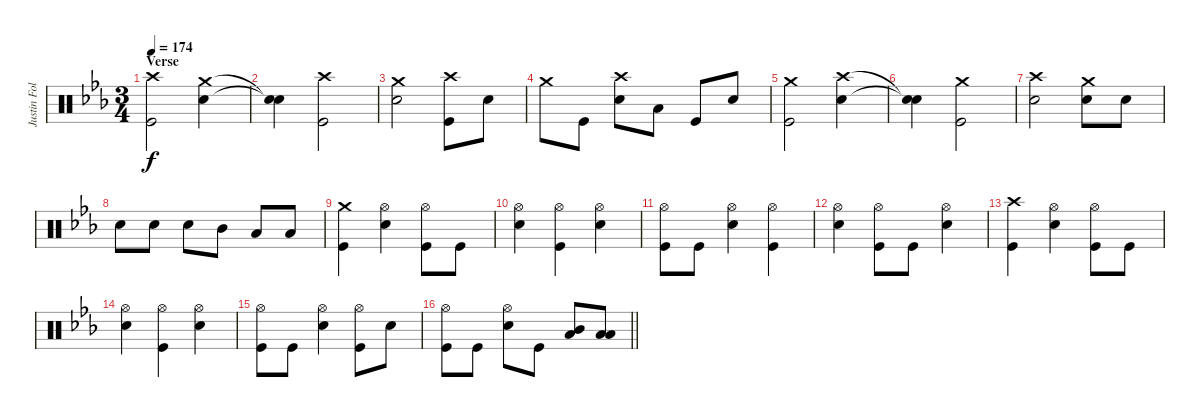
\track ("Justin Foley" "Justin Fol") {instrument percussion}
\staff {score}
\articulation defaults
\ts (3 4)
\section ("" "Verse")
\tempo 174
\clef neutral
\ks cminor
("Kick (hit)" "Crash high (hit)").2{dy f} ("Crash medium (hit)" "Snare (hit) 2").4 |
("Snare (hit)"{t} "Snare (hit)"{t}).4 ("Kick (hit)" "Crash high (hit)").2 |
("Crash medium (hit)" "Snare (hit) 2").2 ("Kick (hit)" "Crash high (hit)").8 "Snare (hit) 2".8 |
"Crash medium (hit)".8 "Kick (hit)".8 ("Snare (hit) 2" "Crash high (hit)").8 "Low Tom (hit)".8 "Kick (hit)".8 "Snare (hit) 2".8 |
("Crash medium (hit)" "Kick (hit)").2 ("Snare (hit) 2" "Crash high (hit)").4 |
("Snare (hit)"{t} "Snare (hit)"{t}).4 ("Crash medium (hit)" "Kick (hit)").2 |
("Snare (hit) 2" "Crash high (hit)").2 ("Crash medium (hit)" "Snare (hit) 2").8 "Snare (hit) 2".8 |
"Snare (hit) 2".8 "Snare (hit) 2".8 "Snare (hit) 2".8 "Mid Tom (hit)".8 "Low Tom (hit)".8 "Low Floor Tom (hit)".8 |
("Crash medium (hit)" "Kick (hit)").4 ("Hi-Hat (open)" "Snare (hit) 2").4 ("Hi-Hat (open)" "Kick (hit)").8 "Kick (hit)".8 |
("Hi-Hat (open)" "Snare (hit) 2").4 ("Hi-Hat (open)" "Kick (hit)").4 ("Hi-Hat (open)" "Snare (hit) 2").4 |
("Hi-Hat (open)" "Kick (hit)").8 "Kick (hit)".8 ("Hi-Hat (open)" "Snare (hit) 2").4 ("Hi-Hat (open)" "Kick (hit)").4 |
("Hi-Hat (open)" "Snare (hit) 2").4 ("Hi-Hat (open)" "Kick (hit)").8 "Kick (hit)".8 ("Hi-Hat (open)" "Snare (hit) 2").4 |
("Crash high (hit)" "Kick (hit)").4 ("Hi-Hat (open)" "Snare (hit) 2").4 ("Hi-Hat (open)" "Kick (hit)").8 "Kick (hit)".8 |
("Hi-Hat (open)" "Snare (hit) 2").4 ("Hi-Hat (open)" "Kick (hit)").4 ("Hi-Hat (open)" "Snare (hit) 2").4 |
("Hi-Hat (open)" "Kick (hit)").8 "Kick (hit)".8 ("Hi-Hat (open)" "Snare (hit) 2").4 ("Hi-Hat (open)" "Kick (hit)").8 "Snare (hit) 2".8 |
\barLineRight lightlight
("Hi-Hat (open)" "Kick (hit)").8 "Kick (hit)".8 ("Hi-Hat (open)" "Snare (hit) 2").8 "Kick (hit)".8 ("Low Tom (hit)" "Mid Tom (hit)").8 ("Low Floor Tom (hit)" "Low Tom (hit)").8
